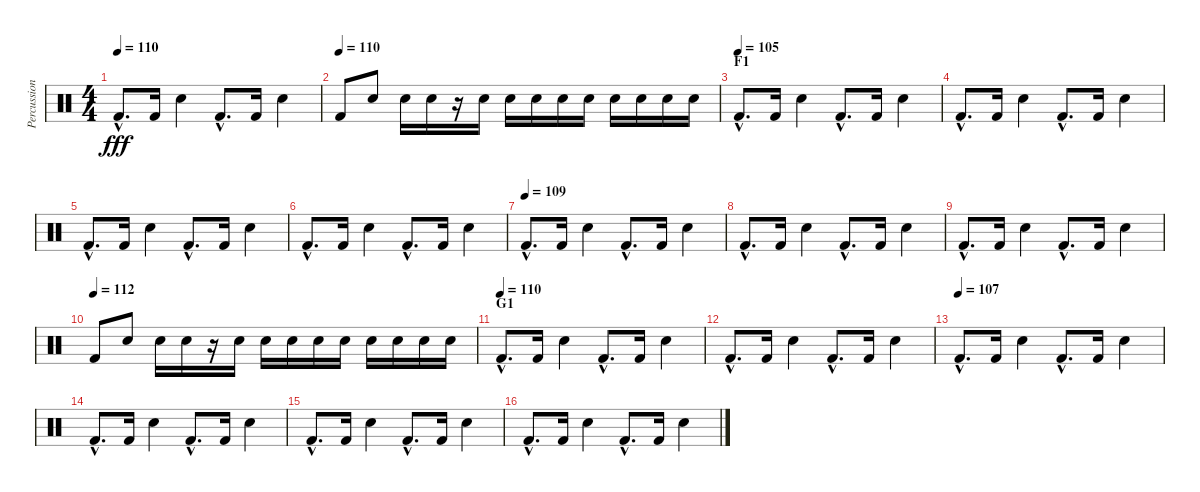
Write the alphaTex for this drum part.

\track ("Percussion" "Percussion") {instrument percussion}
\staff {score}
\articulation defaults
\ts (4 4)
\tempo 110
\clef neutral
\ks c "Kick (hit) 2"{hac}.8{d dy fff} "Kick (hit) 2".16 "Electric Snare (hit)".4 "Kick (hit) 2"{hac}.8{d} "Kick (hit) 2".16 "Electric Snare (hit)".4
|
\tempo (110)
"Kick (hit) 2".8 "Electric Snare (hit)".8 "Electric Snare (hit)".16 "Electric Snare (hit)".16 r.16 "Electric Snare (hit)".16 "Electric Snare (hit)".16 "Electric Snare (hit)".16 "Electric Snare (hit)".16 "Electric Snare (hit)".16 "Electric Snare (hit)".16 "Electric Snare (hit)".16 "Electric Snare (hit)".16 "Electric Snare (hit)".16 |
\section ("" "F1")
\tempo (105)
"Kick (hit) 2"{hac}.8{d} "Kick (hit) 2".16 "Electric Snare (hit)".4 "Kick (hit) 2"{hac}.8{d} "Kick (hit) 2".16 "Electric Snare (hit)".4 |
"Kick (hit) 2"{hac}.8{d} "Kick (hit) 2".16 "Electric Snare (hit)".4 "Kick (hit) 2"{hac}.8{d} "Kick (hit) 2".16 "Electric Snare (hit)".4 |
"Kick (hit) 2"{hac}.8{d} "Kick (hit) 2".16 "Electric Snare (hit)".4 "Kick (hit) 2"{hac}.8{d} "Kick (hit) 2".16 "Electric Snare (hit)".4 |
"Kick (hit) 2"{hac}.8{d} "Kick (hit) 2".16 "Electric Snare (hit)".4 "Kick (hit) 2"{hac}.8{d} "Kick (hit) 2".16 "Electric Snare (hit)".4 |
\tempo (109)
"Kick (hit) 2"{hac}.8{d} "Kick (hit) 2".16 "Electric Snare (hit)".4 "Kick (hit) 2"{hac}.8{d} "Kick (hit) 2".16 "Electric Snare (hit)".4 |
"Kick (hit) 2"{hac}.8{d} "Kick (hit) 2".16 "Electric Snare (hit)".4 "Kick (hit) 2"{hac}.8{d} "Kick (hit) 2".16 "Electric Snare (hit)".4 |
"Kick (hit) 2"{hac}.8{d} "Kick (hit) 2".16 "Electric Snare (hit)".4 "Kick (hit) 2"{hac}.8{d} "Kick (hit) 2".16 "Electric Snare (hit)".4 |
\tempo (112)
"Kick (hit) 2".8 "Electric Snare (hit)".8 "Electric Snare (hit)".16 "Electric Snare (hit)".16 r.16 "Electric Snare (hit)".16 "Electric Snare (hit)".16 "Electric Snare (hit)".16 "Electric Snare (hit)".16 "Electric Snare (hit)".16 "Electric Snare (hit)".16 "Electric Snare (hit)".16 "Electric Snare (hit)".16 "Electric Snare (hit)".16 |
\section ("" "G1")
\tempo (110)
"Kick (hit) 2"{hac}.8{d} "Kick (hit) 2".16 "Electric Snare (hit)".4 "Kick (hit) 2"{hac}.8{d} "Kick (hit) 2".16 "Electric Snare (hit)".4 |
"Kick (hit) 2"{hac}.8{d} "Kick (hit) 2".16 "Electric Snare (hit)".4 "Kick (hit) 2"{hac}.8{d} "Kick (hit) 2".16 "Electric Snare (hit)".4 |
\tempo (107)
"Kick (hit) 2"{hac}.8{d} "Kick (hit) 2".16 "Electric Snare (hit)".4 "Kick (hit) 2"{hac}.8{d} "Kick (hit) 2".16 "Electric Snare (hit)".4 |
"Kick (hit) 2"{hac}.8{d} "Kick (hit) 2".16 "Electric Snare (hit)".4 "Kick (hit) 2"{hac}.8{d} "Kick (hit) 2".16 "Electric Snare (hit)".4 |
"Kick (hit) 2"{hac}.8{d} "Kick (hit) 2".16 "Electric Snare (hit)".4 "Kick (hit) 2"{hac}.8{d} "Kick (hit) 2".16 "Electric Snare (hit)".4 |
"Kick (hit) 2"{hac}.8{d} "Kick (hit) 2".16 "Electric Snare (hit)".4 "Kick (hit) 2"{hac}.8{d} "Kick (hit) 2".16 "Electric Snare (hit)".4
